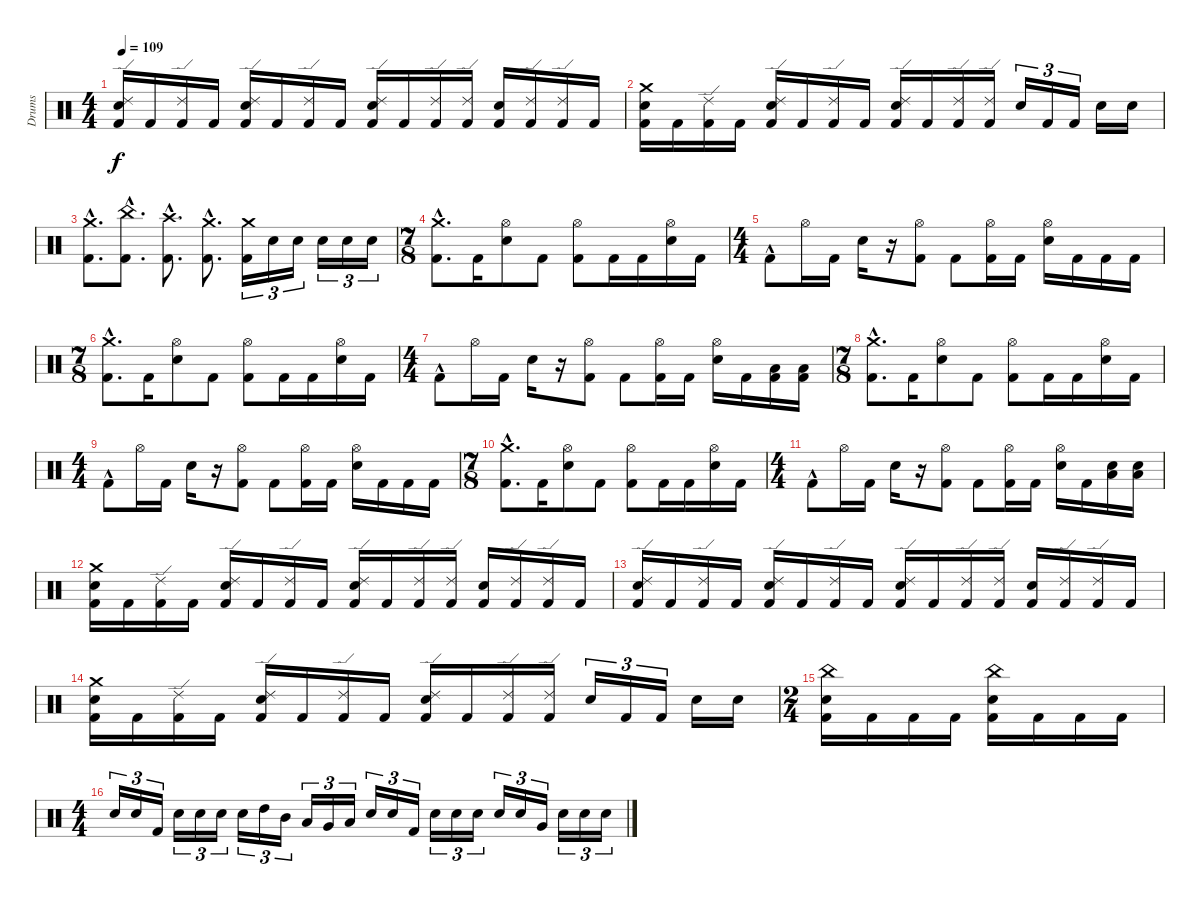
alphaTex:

\track ("Drums" "Drums") {instrument percussion}
\staff {score}
\articulation defaults
\ts (4 4)
\tempo 109
\clef neutral
\ks c
("Ride (edge) 2" "Electric Snare (hit)" "Kick (hit) 2").16{dy f} "Kick (hit) 2".16 ("Ride (edge) 2" "Kick (hit) 2").16 "Kick (hit) 2".16 ("Ride (edge) 2" "Electric Snare (hit)" "Kick (hit) 2").16 "Kick (hit) 2".16 ("Ride (edge) 2" "Kick (hit) 2").16 "Kick (hit) 2".16 ("Ride (edge) 2" "Electric Snare (hit)" "Kick (hit) 2").16 "Kick (hit) 2".16 ("Ride (edge) 2" "Kick (hit) 2").16 ("Ride (edge) 2" "Kick (hit) 2").16 ("Electric Snare (hit)" "Kick (hit) 2").16 ("Ride (edge) 2" "Kick (hit) 2").16 ("Ride (edge) 2" "Kick (hit) 2").16 "Kick (hit) 2".16 |
("Crash medium (hit)" "Electric Snare (hit)" "Kick (hit) 2").16 "Kick (hit) 2".16 ("Ride (edge) 2" "Kick (hit) 2").16 "Kick (hit) 2".16 ("Ride (edge) 2" "Electric Snare (hit)" "Kick (hit) 2").16 "Kick (hit) 2".16 ("Ride (edge) 2" "Kick (hit) 2").16 "Kick (hit) 2".16 ("Ride (edge) 2" "Electric Snare (hit)" "Kick (hit) 2").16 "Kick (hit) 2".16 ("Ride (edge) 2" "Kick (hit) 2").16 ("Ride (edge) 2" "Kick (hit) 2").16 "Electric Snare (hit)".16{tu (3 2)} "Kick (hit) 2".16{tu (3 2)} "Kick (hit) 2".16{tu (3 2)} "Electric Snare (hit)".16 "Electric Snare (hit)".16 |
("Crash medium (hit)"{hac} "Kick (hit) 2"{hac}).8{d} ("China (hit)"{hac} "Kick (hit) 2"{hac}).8{d} ("Crash high (hit)"{hac} "Kick (hit) 2"{hac}).8{d} ("Crash medium (hit)"{hac} "Kick (hit) 2"{hac}).8{d} ("Crash medium (hit)" "Kick (hit) 2").16{tu (3 2)} "Electric Snare (hit)".16{tu (3 2)} "Electric Snare (hit)".16{tu (3 2)} "Electric Snare (hit)".16{tu (3 2)} "Electric Snare (hit)".16{tu (3 2)} "Electric Snare (hit)".16{tu (3 2)} |
\ts (7 8)
("Kick (hit) 2"{hac} "Crash medium (hit)").8{d} "Kick (hit) 2".16 ("Electric Snare (hit)" "Hi-Hat (open)").8 "Kick (hit) 2".8 ("Kick (hit) 2" "Hi-Hat (open)").8 "Kick (hit) 2".16 "Kick (hit) 2".16 ("Electric Snare (hit)" "Hi-Hat (open)").16 "Kick (hit) 2".16 |
\ts (4 4)
"Kick (hit) 2"{hac}.8 "Hi-Hat (open)".16 "Kick (hit) 2".16 "Electric Snare (hit)".16 r.16 ("Kick (hit) 2" "Hi-Hat (open)").8 "Kick (hit) 2".8 ("Kick (hit) 2" "Hi-Hat (open)").16 "Kick (hit) 2".16 ("Hi-Hat (open)" "Electric Snare (hit)").16 "Kick (hit) 2".16 "Kick (hit) 2".16 "Kick (hit) 2".16 |
\ts (7 8)
("Kick (hit) 2"{hac} "Crash medium (hit)").8{d} "Kick (hit) 2".16 ("Electric Snare (hit)" "Hi-Hat (open)").8 "Kick (hit) 2".8 ("Kick (hit) 2" "Hi-Hat (open)").8 "Kick (hit) 2".16 "Kick (hit) 2".16 ("Electric Snare (hit)" "Hi-Hat (open)").16 "Kick (hit) 2".16 |
\ts (4 4)
"Kick (hit) 2"{hac}.8 "Hi-Hat (open)".16 "Kick (hit) 2".16 "Electric Snare (hit)".16 r.16 ("Kick (hit) 2" "Hi-Hat (open)").8 "Kick (hit) 2".8 ("Kick (hit) 2" "Hi-Hat (open)").16 "Kick (hit) 2".16 ("Hi-Hat (open)" "Electric Snare (hit)").16 "Kick (hit) 2".16 ("Low Floor Tom (hit)" "Kick (hit) 2").16 ("Low Floor Tom (hit)" "Kick (hit) 2").16 |
\ts (7 8)
("Kick (hit) 2"{hac} "Crash medium (hit)").8{d} "Kick (hit) 2".16 ("Electric Snare (hit)" "Hi-Hat (open)").8 "Kick (hit) 2".8 ("Kick (hit) 2" "Hi-Hat (open)").8 "Kick (hit) 2".16 "Kick (hit) 2".16 ("Electric Snare (hit)" "Hi-Hat (open)").16 "Kick (hit) 2".16 |
\ts (4 4)
"Kick (hit) 2"{hac}.8 "Hi-Hat (open)".16 "Kick (hit) 2".16 "Electric Snare (hit)".16 r.16 ("Kick (hit) 2" "Hi-Hat (open)").8 "Kick (hit) 2".8 ("Kick (hit) 2" "Hi-Hat (open)").16 "Kick (hit) 2".16 ("Hi-Hat (open)" "Electric Snare (hit)").16 "Kick (hit) 2".16 "Kick (hit) 2".16 "Kick (hit) 2".16 |
\ts (7 8)
("Kick (hit) 2"{hac} "Crash medium (hit)").8{d} "Kick (hit) 2".16 ("Electric Snare (hit)" "Hi-Hat (open)").8 "Kick (hit) 2".8 ("Kick (hit) 2" "Hi-Hat (open)").8 "Kick (hit) 2".16 "Kick (hit) 2".16 ("Electric Snare (hit)" "Hi-Hat (open)").16 "Kick (hit) 2".16 |
\ts (4 4)
"Kick (hit) 2"{hac}.8 "Hi-Hat (open)".16 "Kick (hit) 2".16 "Electric Snare (hit)".16 r.16 ("Kick (hit) 2" "Hi-Hat (open)").8 "Kick (hit) 2".8 ("Kick (hit) 2" "Hi-Hat (open)").16 "Kick (hit) 2".16 ("Hi-Hat (open)" "Electric Snare (hit)").16 "Kick (hit) 2".16 ("Electric Snare (hit)" "Low Floor Tom (hit)").16 ("Electric Snare (hit)" "Low Floor Tom (hit)").16 |
("Crash medium (hit)" "Electric Snare (hit)" "Kick (hit) 2").16 "Kick (hit) 2".16 ("Ride (edge) 2" "Kick (hit) 2").16 "Kick (hit) 2".16 ("Ride (edge) 2" "Electric Snare (hit)" "Kick (hit) 2").16 "Kick (hit) 2".16 ("Ride (edge) 2" "Kick (hit) 2").16 "Kick (hit) 2".16 ("Ride (edge) 2" "Electric Snare (hit)" "Kick (hit) 2").16 "Kick (hit) 2".16 ("Ride (edge) 2" "Kick (hit) 2").16 ("Ride (edge) 2" "Kick (hit) 2").16 ("Electric Snare (hit)" "Kick (hit) 2").16 ("Ride (edge) 2" "Kick (hit) 2").16 ("Ride (edge) 2" "Kick (hit) 2").16 "Kick (hit) 2".16 |
("Ride (edge) 2" "Electric Snare (hit)" "Kick (hit) 2").16 "Kick (hit) 2".16 ("Ride (edge) 2" "Kick (hit) 2").16 "Kick (hit) 2".16 ("Ride (edge) 2" "Electric Snare (hit)" "Kick (hit) 2").16 "Kick (hit) 2".16 ("Ride (edge) 2" "Kick (hit) 2").16 "Kick (hit) 2".16 ("Ride (edge) 2" "Electric Snare (hit)" "Kick (hit) 2").16 "Kick (hit) 2".16 ("Ride (edge) 2" "Kick (hit) 2").16 ("Ride (edge) 2" "Kick (hit) 2").16 ("Electric Snare (hit)" "Kick (hit) 2").16 ("Ride (edge) 2" "Kick (hit) 2").16 ("Ride (edge) 2" "Kick (hit) 2").16 "Kick (hit) 2".16 |
("Crash medium (hit)" "Electric Snare (hit)" "Kick (hit) 2").16 "Kick (hit) 2".16 ("Ride (edge) 2" "Kick (hit) 2").16 "Kick (hit) 2".16 ("Ride (edge) 2" "Electric Snare (hit)" "Kick (hit) 2").16 "Kick (hit) 2".16 ("Ride (edge) 2" "Kick (hit) 2").16 "Kick (hit) 2".16 ("Ride (edge) 2" "Electric Snare (hit)" "Kick (hit) 2").16 "Kick (hit) 2".16 ("Ride (edge) 2" "Kick (hit) 2").16 ("Ride (edge) 2" "Kick (hit) 2").16 "Electric Snare (hit)".16{tu (3 2)} "Kick (hit) 2".16{tu (3 2)} "Kick (hit) 2".16{tu (3 2)} "Electric Snare (hit)".16 "Electric Snare (hit)".16 |
\ts (2 4)
("China (hit)" "Electric Snare (hit)" "Kick (hit) 2").16 "Kick (hit) 2".16 "Kick (hit) 2".16 "Kick (hit) 2".16 ("China (hit)" "Electric Snare (hit)" "Kick (hit) 2").16 "Kick (hit) 2".16 "Kick (hit) 2".16 "Kick (hit) 2".16 |
\ts (4 4)
"Electric Snare (hit)".16{tu (3 2)} "Electric Snare (hit)".16{tu (3 2)} "Kick (hit) 2".16{tu (3 2)} "Electric Snare (hit)".16{tu (3 2)} "Electric Snare (hit)".16{tu (3 2)} "Electric Snare (hit)".16{tu (3 2)} "Electric Snare (hit)".16{tu (3 2)} "High Tom (hit)".16{tu (3 2)} "Mid Tom (hit)".16{tu (3 2)} "Low Tom (hit)".16{tu (3 2)} "Very Low Tom (hit)".16{tu (3 2)} "Low Floor Tom (hit)".16{tu (3 2)} "Electric Snare (hit)".16{tu (3 2)} "Electric Snare (hit)".16{tu (3 2)} "Kick (hit) 2".16{tu (3 2)} "Electric Snare (hit)".16{tu (3 2)} "Electric Snare (hit)".16{tu (3 2)} "Electric Snare (hit)".16{tu (3 2)} "Electric Snare (hit)".16{tu (3 2)} "Electric Snare (hit)".16{tu (3 2)} "Very Low Tom (hit)".16{tu (3 2)} "Electric Snare (hit)".16{tu (3 2)} "Electric Snare (hit)".16{tu (3 2)} "Electric Snare (hit)".16{tu (3 2)}
